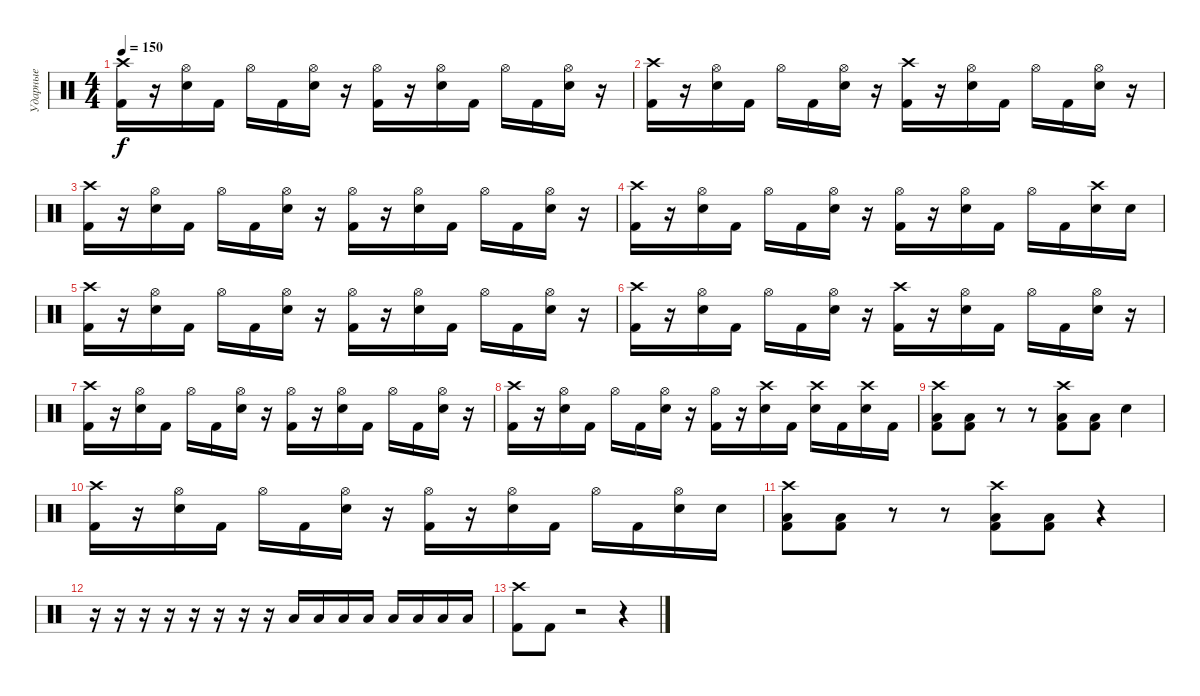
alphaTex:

\track ("Ударные" "Ударные") {instrument percussion}
\staff {score}
\articulation defaults
\ts (4 4)
\tempo 150
\clef neutral
\ks c
("Crash high (hit)" "Kick (hit) 2").16{dy f} r.16 ("Hi-Hat (open)" "Snare (hit) 2").16 "Kick (hit) 2".16 "Hi-Hat (open)".16 "Kick (hit) 2".16 ("Hi-Hat (open)" "Snare (hit) 2").16 r.16 ("Hi-Hat (open)" "Kick (hit) 2").16 r.16 ("Hi-Hat (open)" "Snare (hit) 2").16 "Kick (hit) 2".16 "Hi-Hat (open)".16 "Kick (hit) 2".16 ("Hi-Hat (open)" "Snare (hit) 2").16 r.16 |
("Crash high (hit)" "Kick (hit) 2").16 r.16 ("Hi-Hat (open)" "Snare (hit) 2").16 "Kick (hit) 2".16 "Hi-Hat (open)".16 "Kick (hit) 2".16 ("Hi-Hat (open)" "Snare (hit) 2").16 r.16 ("Crash high (hit)" "Kick (hit) 2").16 r.16 ("Hi-Hat (open)" "Snare (hit) 2").16 "Kick (hit) 2".16 "Hi-Hat (open)".16 "Kick (hit) 2".16 ("Hi-Hat (open)" "Snare (hit) 2").16 r.16 |
("Crash high (hit)" "Kick (hit) 2").16 r.16 ("Hi-Hat (open)" "Snare (hit) 2").16 "Kick (hit) 2".16 "Hi-Hat (open)".16 "Kick (hit) 2".16 ("Hi-Hat (open)" "Snare (hit) 2").16 r.16 ("Hi-Hat (open)" "Kick (hit) 2").16 r.16 ("Hi-Hat (open)" "Snare (hit) 2").16 "Kick (hit) 2".16 "Hi-Hat (open)".16 "Kick (hit) 2".16 ("Hi-Hat (open)" "Snare (hit) 2").16 r.16 |
("Crash high (hit)" "Kick (hit) 2").16 r.16 ("Hi-Hat (open)" "Snare (hit) 2").16 "Kick (hit) 2".16 "Hi-Hat (open)".16 "Kick (hit) 2".16 ("Hi-Hat (open)" "Snare (hit) 2").16 r.16 ("Hi-Hat (open)" "Kick (hit) 2").16 r.16 ("Hi-Hat (open)" "Snare (hit) 2").16 "Kick (hit) 2".16 "Hi-Hat (open)".16 "Kick (hit) 2".16 ("Crash high (hit)" "Snare (hit) 2").16 "Snare (hit) 2".16 |
("Crash high (hit)" "Kick (hit) 2").16 r.16 ("Hi-Hat (open)" "Snare (hit) 2").16 "Kick (hit) 2".16 "Hi-Hat (open)".16 "Kick (hit) 2".16 ("Hi-Hat (open)" "Snare (hit) 2").16 r.16 ("Hi-Hat (open)" "Kick (hit) 2").16 r.16 ("Hi-Hat (open)" "Snare (hit) 2").16 "Kick (hit) 2".16 "Hi-Hat (open)".16 "Kick (hit) 2".16 ("Hi-Hat (open)" "Snare (hit) 2").16 r.16 |
("Crash high (hit)" "Kick (hit) 2").16 r.16 ("Hi-Hat (open)" "Snare (hit) 2").16 "Kick (hit) 2".16 "Hi-Hat (open)".16 "Kick (hit) 2".16 ("Hi-Hat (open)" "Snare (hit) 2").16 r.16 ("Crash high (hit)" "Kick (hit) 2").16 r.16 ("Hi-Hat (open)" "Snare (hit) 2").16 "Kick (hit) 2".16 "Hi-Hat (open)".16 "Kick (hit) 2".16 ("Hi-Hat (open)" "Snare (hit) 2").16 r.16 |
("Crash high (hit)" "Kick (hit) 2").16 r.16 ("Hi-Hat (open)" "Snare (hit) 2").16 "Kick (hit) 2".16 "Hi-Hat (open)".16 "Kick (hit) 2".16 ("Hi-Hat (open)" "Snare (hit) 2").16 r.16 ("Hi-Hat (open)" "Kick (hit) 2").16 r.16 ("Hi-Hat (open)" "Snare (hit) 2").16 "Kick (hit) 2".16 "Hi-Hat (open)".16 "Kick (hit) 2".16 ("Hi-Hat (open)" "Snare (hit) 2").16 r.16 |
("Crash high (hit)" "Kick (hit) 2").16 r.16 ("Hi-Hat (open)" "Snare (hit) 2").16 "Kick (hit) 2".16 "Hi-Hat (open)".16 "Kick (hit) 2".16 ("Hi-Hat (open)" "Snare (hit) 2").16 r.16 ("Hi-Hat (open)" "Kick (hit) 2").16 r.16 ("Crash high (hit)" "Snare (hit) 2").16 "Kick (hit) 2".16 ("Crash high (hit)" "Snare (hit) 2").16 "Kick (hit) 2".16 ("Crash high (hit)" "Snare (hit) 2").16 "Kick (hit) 2".16 |
("Kick (hit) 2" "Crash high (hit)" "Low Floor Tom (hit)").8 ("Kick (hit) 2" "Low Floor Tom (hit)").8 r.8 r.8 ("Kick (hit) 2" "Crash high (hit)" "Low Floor Tom (hit)").8 ("Kick (hit) 2" "Low Floor Tom (hit)").8 "Snare (hit) 2".4 |
("Crash high (hit)" "Kick (hit) 2").16 r.16 ("Hi-Hat (open)" "Snare (hit) 2").16 "Kick (hit) 2".16 "Hi-Hat (open)".16 "Kick (hit) 2".16 ("Hi-Hat (open)" "Snare (hit) 2").16 r.16 ("Hi-Hat (open)" "Kick (hit) 2").16 r.16 ("Hi-Hat (open)" "Snare (hit) 2").16 "Kick (hit) 2".16 "Hi-Hat (open)".16 "Kick (hit) 2".16 ("Hi-Hat (open)" "Snare (hit) 2").16 "Snare (hit) 2".16 |
("Kick (hit) 2" "Crash high (hit)" "Low Floor Tom (hit)").8 ("Kick (hit) 2" "Low Floor Tom (hit)").8 r.8 r.8 ("Kick (hit) 2" "Crash high (hit)" "Low Floor Tom (hit)").8 ("Kick (hit) 2" "Low Floor Tom (hit)").8 r.4 |
r.16 r.16 r.16 r.16 r.16 r.16 r.16 r.16 "Low Floor Tom (hit)".16 "Low Floor Tom (hit)".16 "Low Floor Tom (hit)".16 "Low Floor Tom (hit)".16 "Low Floor Tom (hit)".16 "Low Floor Tom (hit)".16 "Low Floor Tom (hit)".16 "Low Floor Tom (hit)".16 |
("Kick (hit) 2" "Crash high (hit)").8 "Kick (hit) 2".8 r.2 r.4
